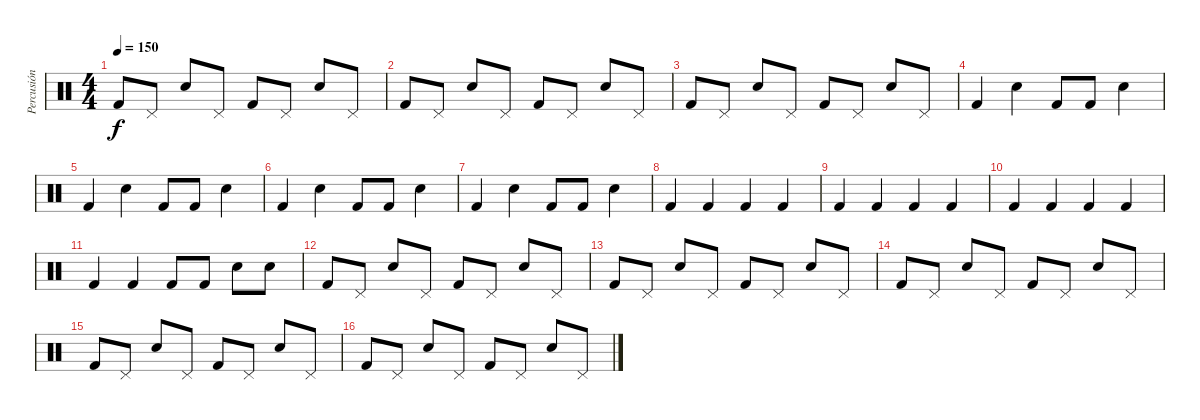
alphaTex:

\track ("Percusión" "Percusión") {instrument percussion}
\staff {score}
\articulation defaults
\ts (4 4)
\tempo 150
\clef neutral
\ks c "Kick (hit) 2".8{dy f} "Pedal Hi-Hat (hit)".8 "Snare (hit) 2".8 "Pedal Hi-Hat (hit)".8 "Kick (hit) 2".8 "Pedal Hi-Hat (hit)".8 "Snare (hit) 2".8 "Pedal Hi-Hat (hit)".8
|
"Kick (hit) 2".8 "Pedal Hi-Hat (hit)".8 "Snare (hit) 2".8 "Pedal Hi-Hat (hit)".8 "Kick (hit) 2".8 "Pedal Hi-Hat (hit)".8 "Snare (hit) 2".8 "Pedal Hi-Hat (hit)".8 |
"Kick (hit) 2".8 "Pedal Hi-Hat (hit)".8 "Snare (hit) 2".8 "Pedal Hi-Hat (hit)".8 "Kick (hit) 2".8 "Pedal Hi-Hat (hit)".8 "Snare (hit) 2".8 "Pedal Hi-Hat (hit)".8 |
"Kick (hit) 2".4 "Snare (hit) 2".4 "Kick (hit) 2".8 "Kick (hit) 2".8 "Snare (hit) 2".4 |
"Kick (hit) 2".4 "Snare (hit) 2".4 "Kick (hit) 2".8 "Kick (hit) 2".8 "Snare (hit) 2".4 |
"Kick (hit) 2".4 "Snare (hit) 2".4 "Kick (hit) 2".8 "Kick (hit) 2".8 "Snare (hit) 2".4 |
"Kick (hit) 2".4 "Snare (hit) 2".4 "Kick (hit) 2".8 "Kick (hit) 2".8 "Snare (hit) 2".4 |
"Kick (hit) 2".4 "Kick (hit) 2".4 "Kick (hit) 2".4 "Kick (hit) 2".4 |
"Kick (hit) 2".4 "Kick (hit) 2".4 "Kick (hit) 2".4 "Kick (hit) 2".4 |
"Kick (hit) 2".4 "Kick (hit) 2".4 "Kick (hit) 2".4 "Kick (hit) 2".4 |
"Kick (hit) 2".4 "Kick (hit) 2".4 "Kick (hit) 2".8 "Kick (hit) 2".8 "Snare (hit) 2".8 "Snare (hit) 2".8 |
"Kick (hit) 2".8 "Pedal Hi-Hat (hit)".8 "Snare (hit) 2".8 "Pedal Hi-Hat (hit)".8 "Kick (hit) 2".8 "Pedal Hi-Hat (hit)".8 "Snare (hit) 2".8 "Pedal Hi-Hat (hit)".8 |
"Kick (hit) 2".8 "Pedal Hi-Hat (hit)".8 "Snare (hit) 2".8 "Pedal Hi-Hat (hit)".8 "Kick (hit) 2".8 "Pedal Hi-Hat (hit)".8 "Snare (hit) 2".8 "Pedal Hi-Hat (hit)".8 |
"Kick (hit) 2".8 "Pedal Hi-Hat (hit)".8 "Snare (hit) 2".8 "Pedal Hi-Hat (hit)".8 "Kick (hit) 2".8 "Pedal Hi-Hat (hit)".8 "Snare (hit) 2".8 "Pedal Hi-Hat (hit)".8 |
"Kick (hit) 2".8 "Pedal Hi-Hat (hit)".8 "Snare (hit) 2".8 "Pedal Hi-Hat (hit)".8 "Kick (hit) 2".8 "Pedal Hi-Hat (hit)".8 "Snare (hit) 2".8 "Pedal Hi-Hat (hit)".8 |
"Kick (hit) 2".8 "Pedal Hi-Hat (hit)".8 "Snare (hit) 2".8 "Pedal Hi-Hat (hit)".8 "Kick (hit) 2".8 "Pedal Hi-Hat (hit)".8 "Snare (hit) 2".8 "Pedal Hi-Hat (hit)".8
